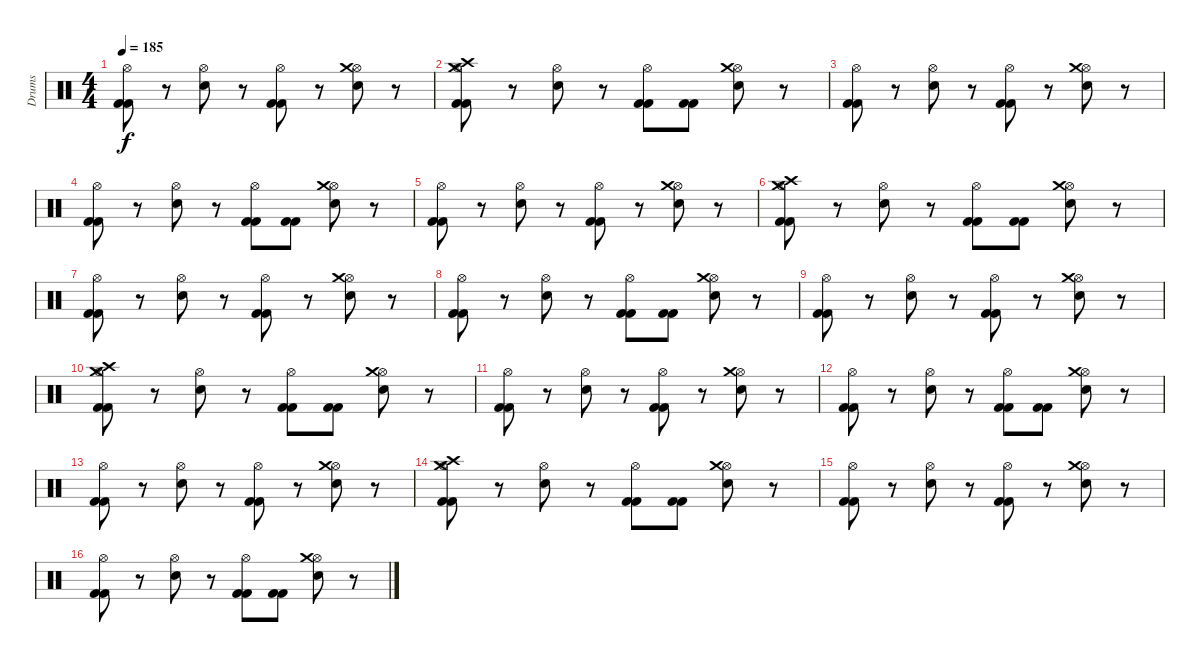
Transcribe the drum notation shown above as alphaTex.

\track ("Drums" "Drums") {instrument percussion}
\staff {score}
\articulation defaults
\ts (4 4)
\tempo 185
\clef neutral
\ks c
("Kick (hit) 2" "Kick (hit) 2" "Hi-Hat (open)").8{dy f} r.8 ("Hi-Hat (open)" "Snare (hit) 2").8 r.8 ("Kick (hit) 2" "Kick (hit) 2" "Hi-Hat (open)").8 r.8 ("Hi-Hat (open)" "Snare (hit) 2" "Crash medium (hit)").8 r.8 |
("Kick (hit) 2" "Kick (hit) 2" "Hi-Hat (open)" "Crash high (hit)" "Crash medium (hit)").8 r.8 ("Hi-Hat (open)" "Snare (hit) 2").8 r.8 ("Kick (hit) 2" "Kick (hit) 2" "Hi-Hat (open)").8 ("Kick (hit) 2" "Kick (hit) 2").8 ("Hi-Hat (open)" "Snare (hit) 2" "Crash medium (hit)").8 r.8 |
("Kick (hit) 2" "Kick (hit) 2" "Hi-Hat (open)").8 r.8 ("Hi-Hat (open)" "Snare (hit) 2").8 r.8 ("Kick (hit) 2" "Kick (hit) 2" "Hi-Hat (open)").8 r.8 ("Hi-Hat (open)" "Snare (hit) 2" "Crash medium (hit)").8 r.8 |
("Kick (hit) 2" "Kick (hit) 2" "Hi-Hat (open)").8 r.8 ("Hi-Hat (open)" "Snare (hit) 2").8 r.8 ("Kick (hit) 2" "Kick (hit) 2" "Hi-Hat (open)").8 ("Kick (hit) 2" "Kick (hit) 2").8 ("Hi-Hat (open)" "Snare (hit) 2" "Crash medium (hit)").8 r.8 |
("Kick (hit) 2" "Kick (hit) 2" "Hi-Hat (open)").8 r.8 ("Hi-Hat (open)" "Snare (hit) 2").8 r.8 ("Kick (hit) 2" "Kick (hit) 2" "Hi-Hat (open)").8 r.8 ("Hi-Hat (open)" "Snare (hit) 2" "Crash medium (hit)").8 r.8 |
("Kick (hit) 2" "Kick (hit) 2" "Hi-Hat (open)" "Crash high (hit)" "Crash medium (hit)").8 r.8 ("Hi-Hat (open)" "Snare (hit) 2").8 r.8 ("Kick (hit) 2" "Kick (hit) 2" "Hi-Hat (open)").8 ("Kick (hit) 2" "Kick (hit) 2").8 ("Hi-Hat (open)" "Snare (hit) 2" "Crash medium (hit)").8 r.8 |
("Kick (hit) 2" "Kick (hit) 2" "Hi-Hat (open)").8 r.8 ("Hi-Hat (open)" "Snare (hit) 2").8 r.8 ("Kick (hit) 2" "Kick (hit) 2" "Hi-Hat (open)").8 r.8 ("Hi-Hat (open)" "Snare (hit) 2" "Crash medium (hit)").8 r.8 |
("Kick (hit) 2" "Kick (hit) 2" "Hi-Hat (open)").8 r.8 ("Hi-Hat (open)" "Snare (hit) 2").8 r.8 ("Kick (hit) 2" "Kick (hit) 2" "Hi-Hat (open)").8 ("Kick (hit) 2" "Kick (hit) 2").8 ("Hi-Hat (open)" "Snare (hit) 2" "Crash medium (hit)").8 r.8 |
("Kick (hit) 2" "Kick (hit) 2" "Hi-Hat (open)").8 r.8 ("Hi-Hat (open)" "Snare (hit) 2").8 r.8 ("Kick (hit) 2" "Kick (hit) 2" "Hi-Hat (open)").8 r.8 ("Hi-Hat (open)" "Snare (hit) 2" "Crash medium (hit)").8 r.8 |
("Kick (hit) 2" "Kick (hit) 2" "Hi-Hat (open)" "Crash high (hit)" "Crash medium (hit)").8 r.8 ("Hi-Hat (open)" "Snare (hit) 2").8 r.8 ("Kick (hit) 2" "Kick (hit) 2" "Hi-Hat (open)").8 ("Kick (hit) 2" "Kick (hit) 2").8 ("Hi-Hat (open)" "Snare (hit) 2" "Crash medium (hit)").8 r.8 |
("Kick (hit) 2" "Kick (hit) 2" "Hi-Hat (open)").8 r.8 ("Hi-Hat (open)" "Snare (hit) 2").8 r.8 ("Kick (hit) 2" "Kick (hit) 2" "Hi-Hat (open)").8 r.8 ("Hi-Hat (open)" "Snare (hit) 2" "Crash medium (hit)").8 r.8 |
("Kick (hit) 2" "Kick (hit) 2" "Hi-Hat (open)").8 r.8 ("Hi-Hat (open)" "Snare (hit) 2").8 r.8 ("Kick (hit) 2" "Kick (hit) 2" "Hi-Hat (open)").8 ("Kick (hit) 2" "Kick (hit) 2").8 ("Hi-Hat (open)" "Snare (hit) 2" "Crash medium (hit)").8 r.8 |
("Kick (hit) 2" "Kick (hit) 2" "Hi-Hat (open)").8 r.8 ("Hi-Hat (open)" "Snare (hit) 2").8 r.8 ("Kick (hit) 2" "Kick (hit) 2" "Hi-Hat (open)").8 r.8 ("Hi-Hat (open)" "Snare (hit) 2" "Crash medium (hit)").8 r.8 |
("Kick (hit) 2" "Kick (hit) 2" "Hi-Hat (open)" "Crash high (hit)" "Crash medium (hit)").8 r.8 ("Hi-Hat (open)" "Snare (hit) 2").8 r.8 ("Kick (hit) 2" "Kick (hit) 2" "Hi-Hat (open)").8 ("Kick (hit) 2" "Kick (hit) 2").8 ("Hi-Hat (open)" "Snare (hit) 2" "Crash medium (hit)").8 r.8 |
("Kick (hit) 2" "Kick (hit) 2" "Hi-Hat (open)").8 r.8 ("Hi-Hat (open)" "Snare (hit) 2").8 r.8 ("Kick (hit) 2" "Kick (hit) 2" "Hi-Hat (open)").8 r.8 ("Hi-Hat (open)" "Snare (hit) 2" "Crash medium (hit)").8 r.8 |
("Kick (hit) 2" "Kick (hit) 2" "Hi-Hat (open)").8 r.8 ("Hi-Hat (open)" "Snare (hit) 2").8 r.8 ("Kick (hit) 2" "Kick (hit) 2" "Hi-Hat (open)").8 ("Kick (hit) 2" "Kick (hit) 2").8 ("Hi-Hat (open)" "Snare (hit) 2" "Crash medium (hit)").8 r.8
